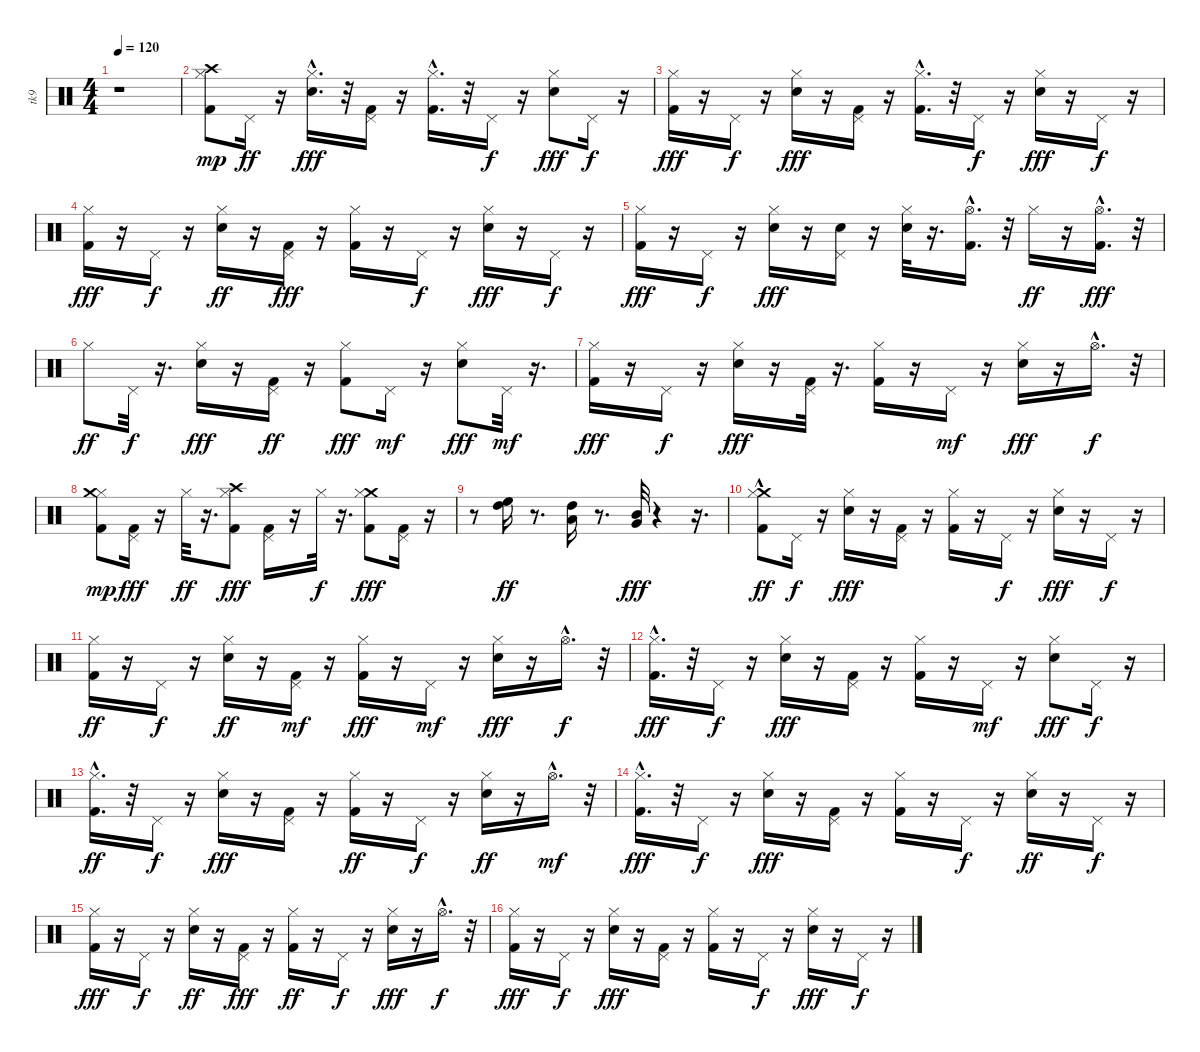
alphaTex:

\track ("tk9" "tk9") {instrument percussion}
\staff {score}
\articulation defaults
\ts (4 4)
\tempo 120
\clef neutral
\ks c
r.1{dy mp} |
("Kick (hit) 2" "Hi-Hat (closed)" "Crash high (hit)").8{balance 8} "Pedal Hi-Hat (hit)".16{dy ff} r.16 ("Hi-Hat (closed)"{hac} "Snare (hit) 2").16{d dy fff} r.32 ("Pedal Hi-Hat (hit)" "Kick (hit) 2").16 r.16 ("Hi-Hat (closed)"{hac} "Kick (hit) 2").16{d} r.32 "Pedal Hi-Hat (hit)".16{dy f} r.16 ("Hi-Hat (closed)" "Snare (hit) 2").8{dy fff} "Pedal Hi-Hat (hit)".16{dy f} r.16 |
("Hi-Hat (closed)" "Kick (hit) 2").16{dy fff} r.16 "Pedal Hi-Hat (hit)".16{dy f} r.16 ("Hi-Hat (closed)" "Snare (hit) 2").16{dy fff} r.16 ("Pedal Hi-Hat (hit)" "Kick (hit) 2").16 r.16 ("Hi-Hat (closed)" "Kick (hit) 2"{hac}).16{d} r.32 "Pedal Hi-Hat (hit)".16{dy f} r.16 ("Hi-Hat (closed)" "Snare (hit) 2").16{dy fff} r.16 "Pedal Hi-Hat (hit)".16{dy f} r.16 |
("Hi-Hat (closed)" "Kick (hit) 2").16{dy fff} r.16 "Pedal Hi-Hat (hit)".16{dy f} r.16 ("Snare (hit) 2" "Hi-Hat (closed)").16{dy ff} r.16 ("Pedal Hi-Hat (hit)" "Kick (hit) 2").16{dy fff} r.16 ("Hi-Hat (closed)" "Kick (hit) 2").16 r.16 "Pedal Hi-Hat (hit)".16{dy f} r.16 ("Hi-Hat (closed)" "Snare (hit) 2").16{dy fff} r.16 "Pedal Hi-Hat (hit)".16{dy f} r.16 |
("Hi-Hat (closed)" "Kick (hit) 2").16{dy fff} r.16 "Pedal Hi-Hat (hit)".16{dy f} r.16 ("Hi-Hat (closed)" "Snare (hit) 2").16{dy fff} r.16 ("Pedal Hi-Hat (hit)" "Snare (hit) 2").16 r.16 ("Hi-Hat (closed)" "Snare (hit) 2").32 r.16{d} ("Kick (hit) 2" "Hi-Hat (open)"{hac}).16{d} r.32 "Hi-Hat (closed)".16{dy ff} r.16 ("Hi-Hat (open)"{hac} "Kick (hit) 2").16{d dy fff} r.32 |
"Hi-Hat (closed)".8{dy ff} "Pedal Hi-Hat (hit)".32{dy f} r.16{d} ("Hi-Hat (closed)" "Snare (hit) 2").16{dy fff} r.16 ("Pedal Hi-Hat (hit)" "Kick (hit) 2").16{dy ff} r.16 ("Hi-Hat (closed)" "Kick (hit) 2").8{dy fff} "Pedal Hi-Hat (hit)".16{dy mf} r.16 ("Hi-Hat (closed)" "Snare (hit) 2").8{dy fff} "Pedal Hi-Hat (hit)".32{dy mf} r.16{d} |
("Hi-Hat (closed)" "Kick (hit) 2").16{dy fff} r.16 "Pedal Hi-Hat (hit)".16{dy f} r.16 ("Hi-Hat (closed)" "Snare (hit) 2").16{dy fff} r.16 ("Pedal Hi-Hat (hit)" "Kick (hit) 2").32 r.16{d} ("Hi-Hat (closed)" "Kick (hit) 2").16 r.16 "Pedal Hi-Hat (hit)".16{dy mf} r.16 ("Hi-Hat (closed)" "Snare (hit) 2").16{dy fff} r.16 "Hi-Hat (open)"{hac}.16{d dy f} r.32 |
("Hi-Hat (closed)" "Kick (hit) 2" "Crash medium (hit)").8{dy mp} ("Pedal Hi-Hat (hit)" "Kick (hit) 2").16{dy fff} r.16 "Hi-Hat (closed)".32{dy ff} r.16{d} ("Crash high (hit)" "Hi-Hat (closed)" "Kick (hit) 2").8{dy fff} ("Pedal Hi-Hat (hit)" "Kick (hit) 2").16 r.16 "Hi-Hat (closed)".32{dy f} r.16{d} ("Crash medium (hit)" "Hi-Hat (closed)" "Kick (hit) 2").8{dy fff} ("Pedal Hi-Hat (hit)" "Kick (hit) 2").16 r.16 |
r.8 ("High Tom (hit)" "High Floor Tom (hit)").16{dy ff} r.8{d} ("Low Tom (hit)" "High Tom (hit)").16 r.8{d} ("Mid Tom (hit)" "Very Low Tom (hit)").32{dy fff} r.4 r.16{d} |
("Kick (hit) 2"{hac} "Crash medium (hit)" "Hi-Hat (closed)").8{dy ff} "Pedal Hi-Hat (hit)".16{dy f} r.16 ("Hi-Hat (closed)" "Snare (hit) 2").16{dy fff} r.16 ("Pedal Hi-Hat (hit)" "Kick (hit) 2").16 r.16 ("Hi-Hat (closed)" "Kick (hit) 2").16 r.16 "Pedal Hi-Hat (hit)".16{dy f} r.16 ("Hi-Hat (closed)" "Snare (hit) 2").16{dy fff} r.16 "Pedal Hi-Hat (hit)".16{dy f} r.16 |
("Kick (hit) 2" "Hi-Hat (closed)").16{dy ff} r.16 "Pedal Hi-Hat (hit)".16{dy f} r.16 ("Snare (hit) 2" "Hi-Hat (closed)").16{dy ff} r.16 ("Kick (hit) 2" "Pedal Hi-Hat (hit)").16{dy mf} r.16 ("Hi-Hat (closed)" "Kick (hit) 2").16{dy fff} r.16 "Pedal Hi-Hat (hit)".16{dy mf} r.16 ("Hi-Hat (closed)" "Snare (hit) 2").16{dy fff} r.16 "Hi-Hat (open)"{hac}.16{d dy f} r.32 |
("Hi-Hat (closed)"{hac} "Kick (hit) 2").16{d dy fff} r.32 "Pedal Hi-Hat (hit)".16{dy f} r.16 ("Hi-Hat (closed)" "Snare (hit) 2").16{dy fff} r.16 ("Pedal Hi-Hat (hit)" "Kick (hit) 2").16 r.16 ("Hi-Hat (closed)" "Kick (hit) 2").16 r.16 "Pedal Hi-Hat (hit)".16{dy mf} r.16 ("Hi-Hat (closed)" "Snare (hit) 2").8{dy fff} "Pedal Hi-Hat (hit)".16{dy f} r.16 |
("Kick (hit) 2"{hac} "Hi-Hat (closed)"{hac}).16{d dy ff} r.32 "Pedal Hi-Hat (hit)".16{dy f} r.16 ("Hi-Hat (closed)" "Snare (hit) 2").16{dy fff} r.16 ("Pedal Hi-Hat (hit)" "Kick (hit) 2").16 r.16 ("Kick (hit) 2" "Hi-Hat (closed)").16{dy ff} r.16 "Pedal Hi-Hat (hit)".16{dy f} r.16 ("Snare (hit) 2" "Hi-Hat (closed)").16{dy ff} r.16 "Hi-Hat (open)"{hac}.16{d dy mf} r.32 |
("Hi-Hat (closed)"{hac} "Kick (hit) 2"{hac}).16{d dy fff} r.32 "Pedal Hi-Hat (hit)".16{dy f} r.16 ("Hi-Hat (closed)" "Snare (hit) 2").16{dy fff} r.16 ("Pedal Hi-Hat (hit)" "Kick (hit) 2").16 r.16 ("Hi-Hat (closed)" "Kick (hit) 2").16 r.16 "Pedal Hi-Hat (hit)".16{dy f} r.16 ("Snare (hit) 2" "Hi-Hat (closed)").16{dy ff} r.16 "Pedal Hi-Hat (hit)".16{dy f} r.16 |
("Hi-Hat (closed)" "Kick (hit) 2").16{dy fff} r.16 "Pedal Hi-Hat (hit)".16{dy f} r.16 ("Snare (hit) 2" "Hi-Hat (closed)").16{dy ff} r.16 ("Kick (hit) 2" "Pedal Hi-Hat (hit)").16{dy fff} r.16 ("Kick (hit) 2" "Hi-Hat (closed)").16{dy ff} r.16 "Pedal Hi-Hat (hit)".16{dy f} r.16 ("Snare (hit) 2" "Hi-Hat (closed)").16{dy fff} r.16 "Hi-Hat (open)"{hac}.16{d dy f} r.32 |
("Hi-Hat (closed)" "Kick (hit) 2").16{dy fff} r.16 "Pedal Hi-Hat (hit)".16{dy f} r.16 ("Hi-Hat (closed)" "Snare (hit) 2").16{dy fff} r.16 ("Pedal Hi-Hat (hit)" "Kick (hit) 2").16 r.16 ("Hi-Hat (closed)" "Kick (hit) 2").16 r.16 "Pedal Hi-Hat (hit)".16{dy f} r.16 ("Hi-Hat (closed)" "Snare (hit) 2").16{dy fff} r.16 "Pedal Hi-Hat (hit)".16{dy f} r.16
